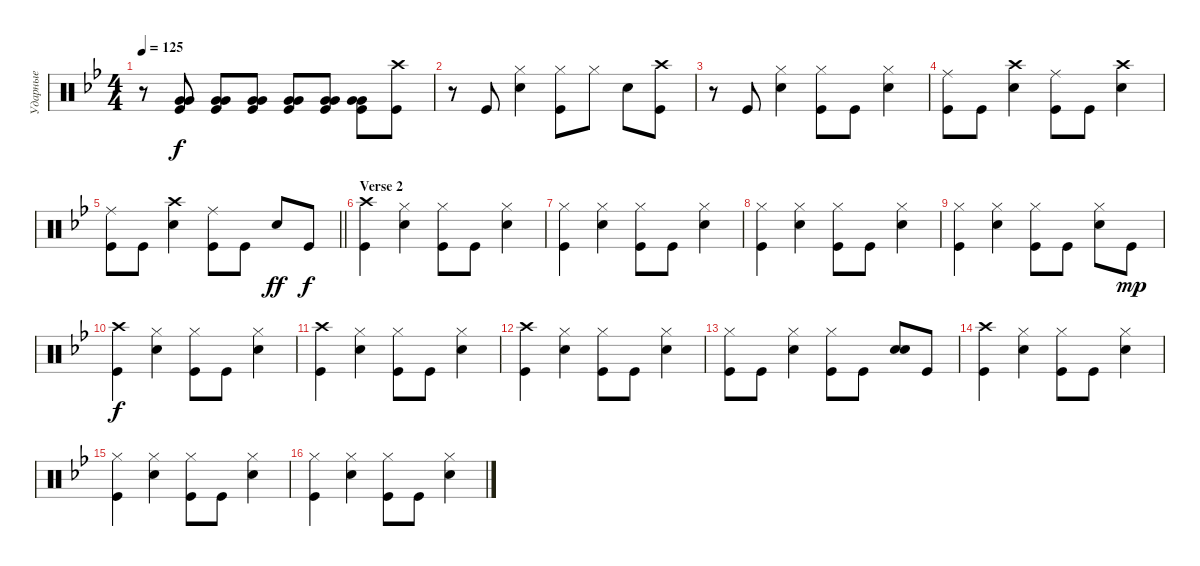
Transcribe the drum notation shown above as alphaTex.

\track ("Ударные" "Ударные") {instrument percussion}
\staff {score}
\articulation defaults
\ts (4 4)
\tempo 125
\clef neutral
\ks gminor
r.8{dy f} ("Kick (hit)" "Very Low Tom (hit)" "Very Low Tom (hit)").8{bd 60} ("Kick (hit)" "Very Low Tom (hit)" "Very Low Tom (hit)").8{bd 60} ("Kick (hit)" "Very Low Tom (hit)" "Very Low Tom (hit)").8{bd 60} ("Kick (hit)" "Very Low Tom (hit)" "Very Low Tom (hit)").8{bd 60} ("Kick (hit)" "Very Low Tom (hit)" "Very Low Tom (hit)").8{bd 60} ("Kick (hit)" "Very Low Tom (hit)" "Very Low Tom (hit)").8{bd 60} ("Kick (hit)" "Crash high (hit)").8 |
r.8 "Kick (hit)".8 ("Hi-Hat (closed)" "Snare (hit) 2").4 ("Hi-Hat (closed)" "Kick (hit)").8 "Hi-Hat (closed)".8 "Snare (hit) 2".8 ("Kick (hit)" "Crash high (hit)").8 |
r.8 "Kick (hit)".8 ("Hi-Hat (closed)" "Snare (hit) 2").4 ("Hi-Hat (closed)" "Kick (hit)").8 "Kick (hit)".8 ("Hi-Hat (closed)" "Snare (hit) 2").4 |
("Kick (hit)" "Ride (middle)").8 "Kick (hit)".8 ("Snare (hit) 2" "Crash high (hit)").4 ("Kick (hit)" "Ride (middle)").8 "Kick (hit)".8 ("Snare (hit) 2" "Crash high (hit)").4 |
\barLineRight lightlight
("Kick (hit)" "Ride (middle)").8 "Kick (hit)".8 ("Snare (hit) 2" "Crash high (hit)").4 ("Kick (hit)" "Ride (middle)").8 "Kick (hit)".8 "Snare (hit) 2".8{dy ff} "Kick (hit)".8{dy f} |
\section ("" "Verse 2")
("Kick (hit)" "Crash high (hit)").4 ("Hi-Hat (closed)" "Snare (hit) 2").4 ("Hi-Hat (closed)" "Kick (hit)").8 "Kick (hit)".8 ("Hi-Hat (closed)" "Snare (hit) 2").4 |
("Kick (hit)" "Hi-Hat (closed)").4 ("Hi-Hat (closed)" "Snare (hit) 2").4 ("Hi-Hat (closed)" "Kick (hit)").8 "Kick (hit)".8 ("Hi-Hat (closed)" "Snare (hit) 2").4 |
("Kick (hit)" "Hi-Hat (closed)").4 ("Hi-Hat (closed)" "Snare (hit) 2").4 ("Hi-Hat (closed)" "Kick (hit)").8 "Kick (hit)".8 ("Hi-Hat (closed)" "Snare (hit) 2").4 |
("Kick (hit)" "Hi-Hat (closed)").4 ("Hi-Hat (closed)" "Snare (hit) 2").4 ("Hi-Hat (closed)" "Kick (hit)").8 "Kick (hit)".8 ("Hi-Hat (closed)" "Snare (hit) 2").8 "Kick (hit)".8{dy mp} |
("Kick (hit)" "Crash high (hit)").4{dy f} ("Hi-Hat (closed)" "Snare (hit) 2").4 ("Hi-Hat (closed)" "Kick (hit)").8 "Kick (hit)".8 ("Hi-Hat (closed)" "Snare (hit) 2").4 |
("Kick (hit)" "Crash high (hit)").4 ("Hi-Hat (closed)" "Snare (hit) 2").4 ("Hi-Hat (closed)" "Kick (hit)").8 "Kick (hit)".8 ("Hi-Hat (closed)" "Snare (hit) 2").4 |
("Kick (hit)" "Crash high (hit)").4 ("Hi-Hat (closed)" "Snare (hit) 2").4 ("Hi-Hat (closed)" "Kick (hit)").8 "Kick (hit)".8 ("Hi-Hat (closed)" "Snare (hit) 2").4 |
("Kick (hit)" "Hi-Hat (closed)").8 "Kick (hit)".8 ("Hi-Hat (closed)" "Snare (hit) 2").4 ("Hi-Hat (closed)" "Kick (hit)").8 "Kick (hit)".8 ("Snare (hit) 2" "Snare (hit) 2").8{bd 120} "Kick (hit)".8 |
("Kick (hit)" "Crash high (hit)").4 ("Hi-Hat (closed)" "Snare (hit) 2").4 ("Hi-Hat (closed)" "Kick (hit)").8 "Kick (hit)".8 ("Hi-Hat (closed)" "Snare (hit) 2").4 |
("Kick (hit)" "Hi-Hat (closed)").4 ("Hi-Hat (closed)" "Snare (hit) 2").4 ("Hi-Hat (closed)" "Kick (hit)").8 "Kick (hit)".8 ("Hi-Hat (closed)" "Snare (hit) 2").4 |
("Kick (hit)" "Hi-Hat (closed)").4 ("Hi-Hat (closed)" "Snare (hit) 2").4 ("Hi-Hat (closed)" "Kick (hit)").8 "Kick (hit)".8 ("Hi-Hat (closed)" "Snare (hit) 2").4
